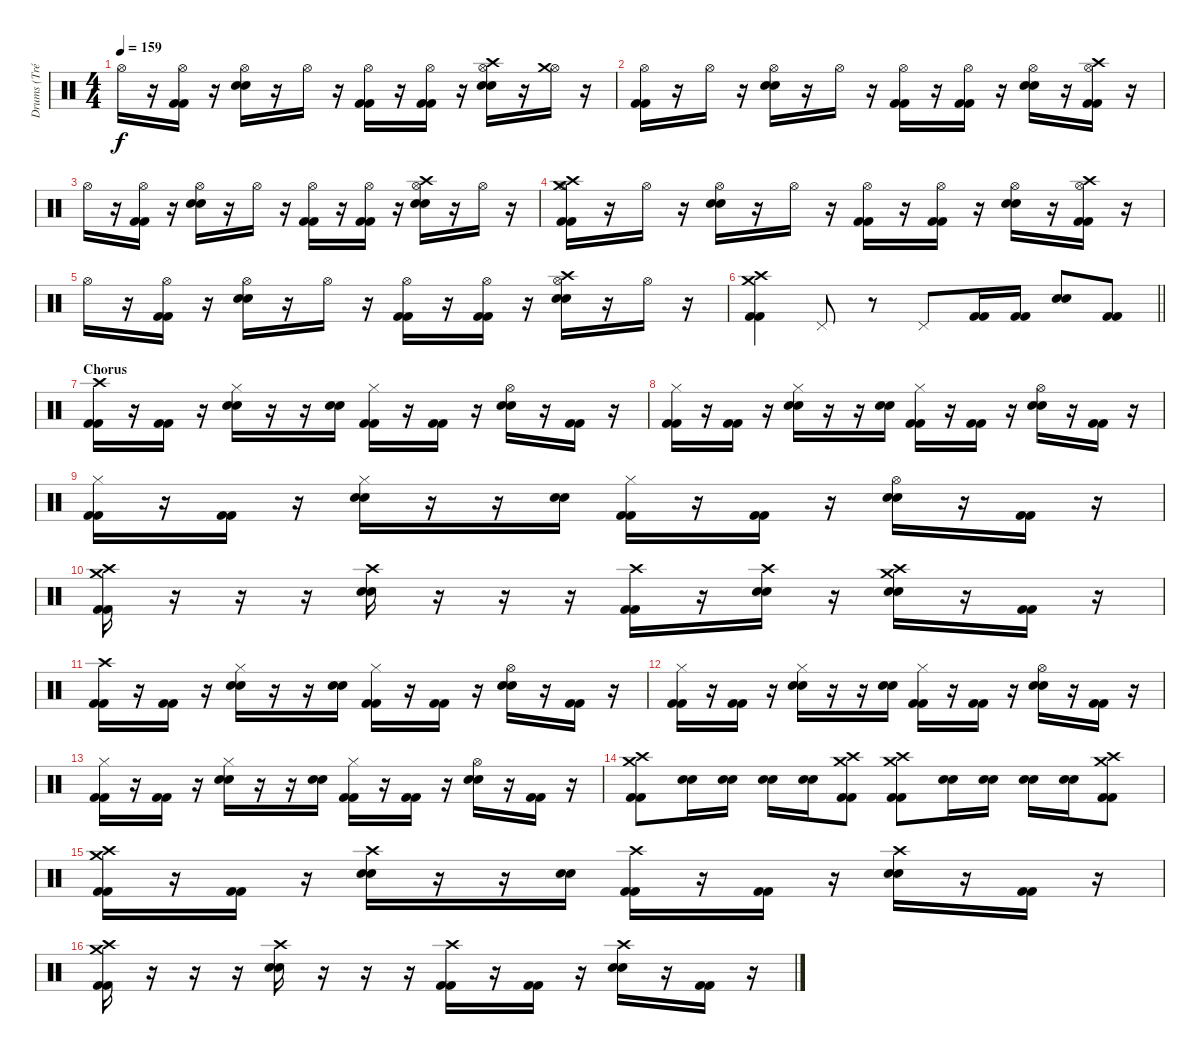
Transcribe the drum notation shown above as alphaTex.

\track ("Drums (Tré Cool)" "Drums (Tré") {instrument percussion}
\staff {score}
\articulation defaults
\ts (4 4)
\tempo 159
\clef neutral
\ks c "Hi-Hat (open)".16{dy f}
r.16 ("Hi-Hat (open)" "Kick (hit) 2" "Kick (hit) 2").16 r.16 ("Hi-Hat (open)" "Snare (hit) 2" "Snare (hit) 2").16 r.16 "Hi-Hat (open)".16 r.16 ("Hi-Hat (open)" "Kick (hit) 2" "Kick (hit) 2").16 r.16 ("Hi-Hat (open)" "Kick (hit) 2" "Kick (hit) 2").16 r.16 ("Hi-Hat (open)" "Crash high (hit)" "Snare (hit) 2" "Snare (hit) 2").16 r.16 ("Hi-Hat (open)" "Crash medium (hit)").16 r.16 |
("Hi-Hat (open)" "Kick (hit) 2" "Kick (hit) 2").16 r.16 "Hi-Hat (open)".16 r.16 ("Hi-Hat (open)" "Snare (hit) 2" "Snare (hit) 2").16 r.16 "Hi-Hat (open)".16 r.16 ("Hi-Hat (open)" "Kick (hit) 2" "Kick (hit) 2").16 r.16 ("Hi-Hat (open)" "Kick (hit) 2" "Kick (hit) 2").16 r.16 ("Hi-Hat (open)" "Snare (hit) 2" "Snare (hit) 2").16 r.16 ("Hi-Hat (open)" "Crash high (hit)" "Kick (hit) 2" "Kick (hit) 2").16 r.16 |
"Hi-Hat (open)".16 r.16 ("Hi-Hat (open)" "Kick (hit) 2" "Kick (hit) 2").16 r.16 ("Hi-Hat (open)" "Snare (hit) 2" "Snare (hit) 2").16 r.16 "Hi-Hat (open)".16 r.16 ("Hi-Hat (open)" "Kick (hit) 2" "Kick (hit) 2").16 r.16 ("Hi-Hat (open)" "Kick (hit) 2" "Kick (hit) 2").16 r.16 ("Hi-Hat (open)" "Crash high (hit)" "Snare (hit) 2" "Snare (hit) 2").16 r.16 "Hi-Hat (open)".16 r.16 |
("Hi-Hat (open)" "Crash high (hit)" "Crash medium (hit)" "Kick (hit) 2" "Kick (hit) 2").16 r.16 "Hi-Hat (open)".16 r.16 ("Hi-Hat (open)" "Snare (hit) 2" "Snare (hit) 2").16 r.16 "Hi-Hat (open)".16 r.16 ("Hi-Hat (open)" "Kick (hit) 2" "Kick (hit) 2").16 r.16 ("Hi-Hat (open)" "Kick (hit) 2" "Kick (hit) 2").16 r.16 ("Hi-Hat (open)" "Snare (hit) 2" "Snare (hit) 2").16 r.16 ("Hi-Hat (open)" "Crash high (hit)" "Kick (hit) 2" "Kick (hit) 2").16 r.16 |
"Hi-Hat (open)".16 r.16 ("Hi-Hat (open)" "Kick (hit) 2" "Kick (hit) 2").16 r.16 ("Hi-Hat (open)" "Snare (hit) 2" "Snare (hit) 2").16 r.16 "Hi-Hat (open)".16 r.16 ("Hi-Hat (open)" "Kick (hit) 2" "Kick (hit) 2").16 r.16 ("Hi-Hat (open)" "Kick (hit) 2" "Kick (hit) 2").16 r.16 ("Hi-Hat (open)" "Crash high (hit)" "Snare (hit) 2" "Snare (hit) 2").16 r.16 "Hi-Hat (open)".16 r.16 |
\barLineRight lightlight
("Crash medium (hit)" "Crash high (hit)" "Kick (hit) 2" "Kick (hit) 2").4 "Pedal Hi-Hat (hit)".8 r.8 "Pedal Hi-Hat (hit)".8 ("Kick (hit) 2" "Kick (hit) 2").16 ("Kick (hit) 2" "Kick (hit) 2").16 ("Snare (hit) 2" "Snare (hit) 2").8 ("Kick (hit) 2" "Kick (hit) 2").8 |
\section ("" "Chorus")
("Crash high (hit)" "Kick (hit) 2" "Kick (hit) 2").16 r.16 ("Kick (hit) 2" "Kick (hit) 2").16 r.16 ("Hi-Hat (closed)" "Snare (hit) 2" "Snare (hit) 2").16 r.16 r.16 ("Snare (hit) 2" "Snare (hit) 2").16 ("Hi-Hat (closed)" "Kick (hit) 2" "Kick (hit) 2").16 r.16 ("Kick (hit) 2" "Kick (hit) 2").16 r.16 ("Hi-Hat (open)" "Snare (hit) 2" "Snare (hit) 2").16 r.16 ("Kick (hit) 2" "Kick (hit) 2").16 r.16 |
("Hi-Hat (closed)" "Kick (hit) 2" "Kick (hit) 2").16 r.16 ("Kick (hit) 2" "Kick (hit) 2").16 r.16 ("Hi-Hat (closed)" "Snare (hit) 2" "Snare (hit) 2").16 r.16 r.16 ("Snare (hit) 2" "Snare (hit) 2").16 ("Hi-Hat (closed)" "Kick (hit) 2" "Kick (hit) 2").16 r.16 ("Kick (hit) 2" "Kick (hit) 2").16 r.16 ("Hi-Hat (open)" "Snare (hit) 2" "Snare (hit) 2").16 r.16 ("Kick (hit) 2" "Kick (hit) 2").16 r.16 |
("Hi-Hat (closed)" "Kick (hit) 2" "Kick (hit) 2").16 r.16 ("Kick (hit) 2" "Kick (hit) 2").16 r.16 ("Hi-Hat (closed)" "Snare (hit) 2" "Snare (hit) 2").16 r.16 r.16 ("Snare (hit) 2" "Snare (hit) 2").16 ("Hi-Hat (closed)" "Kick (hit) 2" "Kick (hit) 2").16 r.16 ("Kick (hit) 2" "Kick (hit) 2").16 r.16 ("Hi-Hat (open)" "Snare (hit) 2" "Snare (hit) 2").16 r.16 ("Kick (hit) 2" "Kick (hit) 2").16 r.16 |
("Crash high (hit)" "Crash medium (hit)" "Kick (hit) 2" "Kick (hit) 2").16 r.16 r.16 r.16 ("Crash high (hit)" "Snare (hit) 2" "Snare (hit) 2").16 r.16 r.16 r.16 ("Crash high (hit)" "Kick (hit) 2" "Kick (hit) 2").16 r.16 ("Crash high (hit)" "Snare (hit) 2" "Snare (hit) 2").16 r.16 ("Crash high (hit)" "Crash medium (hit)" "Snare (hit) 2" "Snare (hit) 2").16 r.16 ("Kick (hit) 2" "Kick (hit) 2").16 r.16 |
("Crash high (hit)" "Kick (hit) 2" "Kick (hit) 2").16 r.16 ("Kick (hit) 2" "Kick (hit) 2").16 r.16 ("Hi-Hat (closed)" "Snare (hit) 2" "Snare (hit) 2").16 r.16 r.16 ("Snare (hit) 2" "Snare (hit) 2").16 ("Hi-Hat (closed)" "Kick (hit) 2" "Kick (hit) 2").16 r.16 ("Kick (hit) 2" "Kick (hit) 2").16 r.16 ("Hi-Hat (open)" "Snare (hit) 2" "Snare (hit) 2").16 r.16 ("Kick (hit) 2" "Kick (hit) 2").16 r.16 |
("Hi-Hat (closed)" "Kick (hit) 2" "Kick (hit) 2").16 r.16 ("Kick (hit) 2" "Kick (hit) 2").16 r.16 ("Hi-Hat (closed)" "Snare (hit) 2" "Snare (hit) 2").16 r.16 r.16 ("Snare (hit) 2" "Snare (hit) 2").16 ("Hi-Hat (closed)" "Kick (hit) 2" "Kick (hit) 2").16 r.16 ("Kick (hit) 2" "Kick (hit) 2").16 r.16 ("Hi-Hat (open)" "Snare (hit) 2" "Snare (hit) 2").16 r.16 ("Kick (hit) 2" "Kick (hit) 2").16 r.16 |
("Hi-Hat (closed)" "Kick (hit) 2" "Kick (hit) 2").16 r.16 ("Kick (hit) 2" "Kick (hit) 2").16 r.16 ("Hi-Hat (closed)" "Snare (hit) 2" "Snare (hit) 2").16 r.16 r.16 ("Snare (hit) 2" "Snare (hit) 2").16 ("Hi-Hat (closed)" "Kick (hit) 2" "Kick (hit) 2").16 r.16 ("Kick (hit) 2" "Kick (hit) 2").16 r.16 ("Hi-Hat (open)" "Snare (hit) 2" "Snare (hit) 2").16 r.16 ("Kick (hit) 2" "Kick (hit) 2").16 r.16 |
("Crash medium (hit)" "Crash high (hit)" "Kick (hit) 2" "Kick (hit) 2").8 ("Snare (hit) 2" "Snare (hit) 2").16 ("Snare (hit) 2" "Snare (hit) 2").16 ("Snare (hit) 2" "Snare (hit) 2").16 ("Snare (hit) 2" "Snare (hit) 2").16 ("Crash high (hit)" "Crash medium (hit)" "Kick (hit) 2" "Kick (hit) 2").8 ("Crash medium (hit)" "Crash high (hit)" "Kick (hit) 2" "Kick (hit) 2").8 ("Snare (hit) 2" "Snare (hit) 2").16 ("Snare (hit) 2" "Snare (hit) 2").16 ("Snare (hit) 2" "Snare (hit) 2").16 ("Snare (hit) 2" "Snare (hit) 2").16 ("Crash medium (hit)" "Crash high (hit)" "Kick (hit) 2" "Kick (hit) 2").8 |
("Crash high (hit)" "Crash medium (hit)" "Kick (hit) 2" "Kick (hit) 2").16 r.16 ("Kick (hit) 2" "Kick (hit) 2").16 r.16 ("Crash high (hit)" "Snare (hit) 2" "Snare (hit) 2").16 r.16 r.16 ("Snare (hit) 2" "Snare (hit) 2").16 ("Crash high (hit)" "Kick (hit) 2" "Kick (hit) 2").16 r.16 ("Kick (hit) 2" "Kick (hit) 2").16 r.16 ("Crash high (hit)" "Snare (hit) 2" "Snare (hit) 2").16 r.16 ("Kick (hit) 2" "Kick (hit) 2").16 r.16 |
("Crash high (hit)" "Crash medium (hit)" "Kick (hit) 2" "Kick (hit) 2").16 r.16 r.16 r.16 ("Crash high (hit)" "Snare (hit) 2" "Snare (hit) 2").16 r.16 r.16 r.16 ("Crash high (hit)" "Kick (hit) 2" "Kick (hit) 2").16 r.16 ("Kick (hit) 2" "Kick (hit) 2").16 r.16 ("Crash high (hit)" "Snare (hit) 2" "Snare (hit) 2").16 r.16 ("Kick (hit) 2" "Kick (hit) 2").16 r.16
